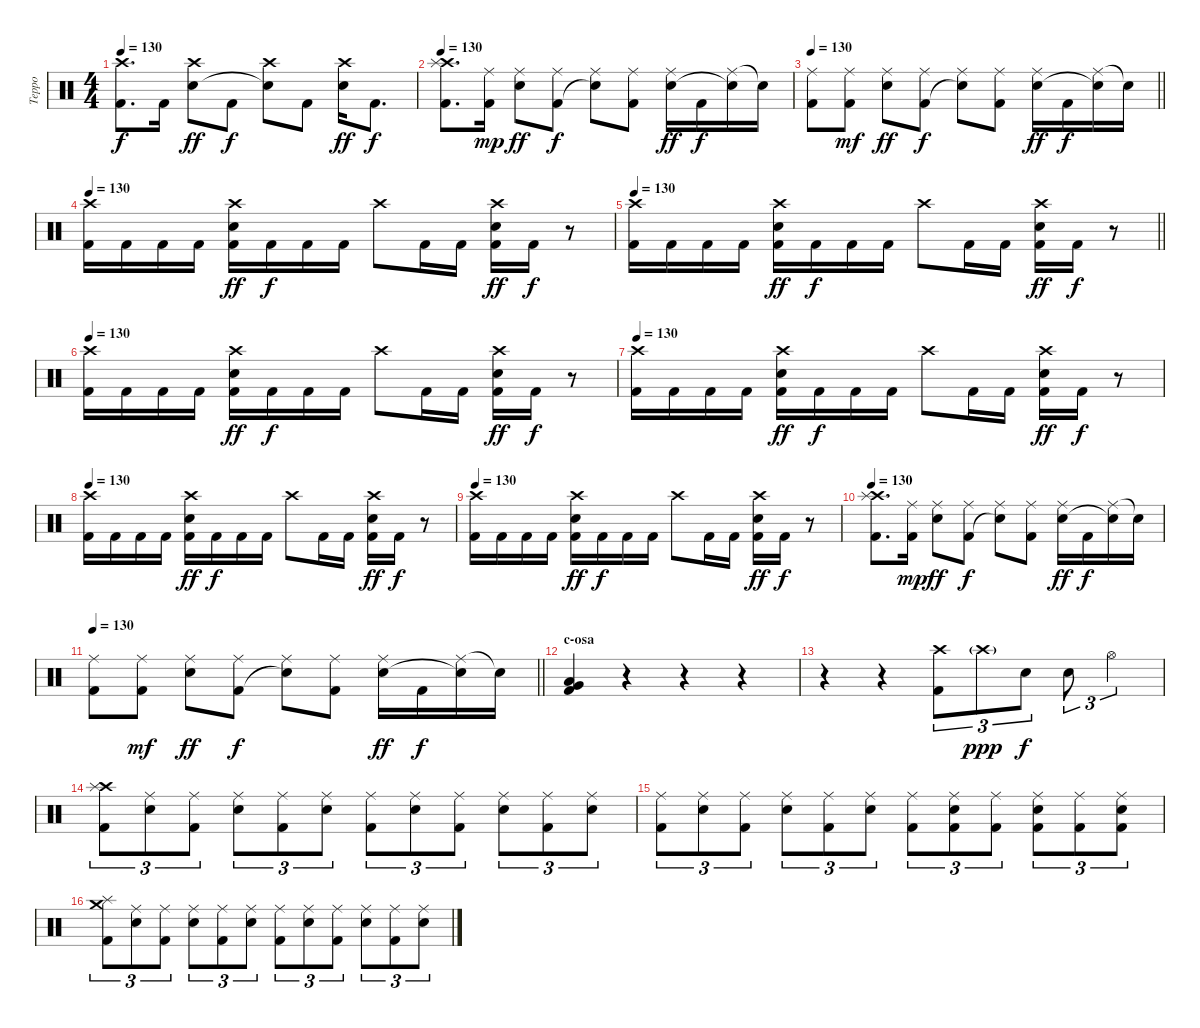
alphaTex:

\track ("Teppo" "Teppo") {instrument percussion}
\staff {score}
\articulation defaults
\ts (4 4)
\tempo 130
\clef neutral
\ks c
("Crash high (hit)" "Kick (hit) 2").8{d dy f} "Kick (hit) 2".16 ("Crash high (hit)" "Electric Snare (hit)").8{dy ff} "Kick (hit) 2".8{dy f} ("Crash high (hit)" "Snare (hit)"{t}).8 "Kick (hit) 2".8 ("Crash high (hit)" "Electric Snare (hit)").16{dy ff} "Kick (hit) 2".8{d dy f} |
\tempo 130
("Crash high (hit)" "Splash (hit)" "Kick (hit) 2").8{d} ("Ride (middle)" "Kick (hit) 2").16{dy mp} ("Ride (middle)" "Electric Snare (hit)").8{dy ff} ("Ride (middle)" "Kick (hit) 2").8{dy f} ("Ride (middle)" "Snare (hit)"{t}).8 ("Ride (middle)" "Kick (hit) 2").8 ("Ride (middle)" "Electric Snare (hit)").16{dy ff} "Kick (hit) 2".16{dy f} ("Ride (middle)" "Snare (hit)"{t}).16 "Snare (hit)"{t}.16 |
\tempo 130
\barLineRight lightlight
("Ride (middle)" "Kick (hit) 2").8 ("Ride (middle)" "Kick (hit) 2").8{dy mf} ("Ride (middle)" "Electric Snare (hit)").8{dy ff} ("Ride (middle)" "Kick (hit) 2").8{dy f} ("Ride (middle)" "Snare (hit)"{t}).8 ("Ride (middle)" "Kick (hit) 2").8 ("Ride (middle)" "Electric Snare (hit)").16{dy ff} "Kick (hit) 2".16{dy f} ("Ride (middle)" "Snare (hit)"{t}).16 "Snare (hit)"{t}.16 |
\tempo 130
("Crash high (hit)" "Kick (hit) 2").16 "Kick (hit) 2".16 "Kick (hit) 2".16 "Kick (hit) 2".16 ("Crash high (hit)" "Electric Snare (hit)" "Kick (hit) 2").16{dy ff} "Kick (hit) 2".16{dy f} "Kick (hit) 2".16 "Kick (hit) 2".16 "Crash high (hit)".8 "Kick (hit) 2".16 "Kick (hit) 2".16 ("Crash high (hit)" "Electric Snare (hit)" "Kick (hit) 2").16{dy ff} "Kick (hit) 2".16{dy f} r.8 |
\tempo 130
\barLineRight lightlight
("Crash high (hit)" "Kick (hit) 2").16 "Kick (hit) 2".16 "Kick (hit) 2".16 "Kick (hit) 2".16 ("Crash high (hit)" "Electric Snare (hit)" "Kick (hit) 2").16{dy ff} "Kick (hit) 2".16{dy f} "Kick (hit) 2".16 "Kick (hit) 2".16 "Crash high (hit)".8 "Kick (hit) 2".16 "Kick (hit) 2".16 ("Crash high (hit)" "Electric Snare (hit)" "Kick (hit) 2").16{dy ff} "Kick (hit) 2".16{dy f} r.8 |
\section ("" "")
\tempo 130
("Crash high (hit)" "Kick (hit) 2").16 "Kick (hit) 2".16 "Kick (hit) 2".16 "Kick (hit) 2".16 ("Crash high (hit)" "Electric Snare (hit)" "Kick (hit) 2").16{dy ff} "Kick (hit) 2".16{dy f} "Kick (hit) 2".16 "Kick (hit) 2".16 "Crash high (hit)".8 "Kick (hit) 2".16 "Kick (hit) 2".16 ("Crash high (hit)" "Electric Snare (hit)" "Kick (hit) 2").16{dy ff} "Kick (hit) 2".16{dy f} r.8 |
\tempo 130
("Crash high (hit)" "Kick (hit) 2").16 "Kick (hit) 2".16 "Kick (hit) 2".16 "Kick (hit) 2".16 ("Crash high (hit)" "Electric Snare (hit)" "Kick (hit) 2").16{dy ff} "Kick (hit) 2".16{dy f} "Kick (hit) 2".16 "Kick (hit) 2".16 "Crash high (hit)".8 "Kick (hit) 2".16 "Kick (hit) 2".16 ("Crash high (hit)" "Electric Snare (hit)" "Kick (hit) 2").16{dy ff} "Kick (hit) 2".16{dy f} r.8 |
\tempo 130
("Crash high (hit)" "Kick (hit) 2").16 "Kick (hit) 2".16 "Kick (hit) 2".16 "Kick (hit) 2".16 ("Crash high (hit)" "Electric Snare (hit)" "Kick (hit) 2").16{dy ff} "Kick (hit) 2".16{dy f} "Kick (hit) 2".16 "Kick (hit) 2".16 "Crash high (hit)".8 "Kick (hit) 2".16 "Kick (hit) 2".16 ("Crash high (hit)" "Electric Snare (hit)" "Kick (hit) 2").16{dy ff} "Kick (hit) 2".16{dy f} r.8 |
\tempo 130
("Crash high (hit)" "Kick (hit) 2").16 "Kick (hit) 2".16 "Kick (hit) 2".16 "Kick (hit) 2".16 ("Crash high (hit)" "Electric Snare (hit)" "Kick (hit) 2").16{dy ff} "Kick (hit) 2".16{dy f} "Kick (hit) 2".16 "Kick (hit) 2".16 "Crash high (hit)".8 "Kick (hit) 2".16 "Kick (hit) 2".16 ("Crash high (hit)" "Electric Snare (hit)" "Kick (hit) 2").16{dy ff} "Kick (hit) 2".16{dy f} r.8 |
\tempo 130
("Crash high (hit)" "Splash (hit)" "Kick (hit) 2").8{d} ("Ride (middle)" "Kick (hit) 2").16{dy mp} ("Ride (middle)" "Electric Snare (hit)").8{dy ff} ("Ride (middle)" "Kick (hit) 2").8{dy f} ("Ride (middle)" "Snare (hit)"{t}).8 ("Ride (middle)" "Kick (hit) 2").8 ("Ride (middle)" "Electric Snare (hit)").16{dy ff} "Kick (hit) 2".16{dy f} ("Ride (middle)" "Snare (hit)"{t}).16 "Snare (hit)"{t}.16 |
\tempo 130
\barLineRight lightlight
("Ride (middle)" "Kick (hit) 2").8 ("Ride (middle)" "Kick (hit) 2").8{dy mf} ("Ride (middle)" "Electric Snare (hit)").8{dy ff} ("Ride (middle)" "Kick (hit) 2").8{dy f} ("Ride (middle)" "Snare (hit)"{t}).8 ("Ride (middle)" "Kick (hit) 2").8 ("Ride (middle)" "Electric Snare (hit)").16{dy ff} "Kick (hit) 2".16{dy f} ("Ride (middle)" "Snare (hit)"{t}).16 "Snare (hit)"{t}.16 |
\section ("" "c-osa")
("Low Floor Tom (hit)" "Very Low Tom (hit)" "Kick (hit) 2").4 r.4 r.4 r.4 |
r.4 r.4 ("Crash high (hit)" "Kick (hit) 2").8{tu (3 2)} "Crash high (hit)"{g}.8{tu (3 2) dy ppp} "Electric Snare (hit)".8{tu (3 2) dy f} "Electric Snare (hit)".8{tu (3 2)} "Hi-Hat (open)".4{tu (3 2)} |
("Crash high (hit)" "Splash (hit)" "Kick (hit) 2").8{tu (3 2)} ("Ride (middle)" "Electric Snare (hit)").8{tu (3 2)} ("Ride (middle)" "Kick (hit) 2").8{tu (3 2)} ("Ride (middle)" "Electric Snare (hit)").8{tu (3 2)} ("Ride (middle)" "Kick (hit) 2").8{tu (3 2)} ("Ride (middle)" "Electric Snare (hit)").8{tu (3 2)} ("Ride (middle)" "Kick (hit) 2").8{tu (3 2)} ("Ride (middle)" "Electric Snare (hit)").8{tu (3 2)} ("Ride (middle)" "Kick (hit) 2").8{tu (3 2)} ("Ride (middle)" "Electric Snare (hit)").8{tu (3 2)} ("Ride (middle)" "Kick (hit) 2").8{tu (3 2)} ("Ride (middle)" "Electric Snare (hit)").8{tu (3 2)} |
("Ride (middle)" "Kick (hit) 2").8{tu (3 2)} ("Ride (middle)" "Electric Snare (hit)").8{tu (3 2)} ("Ride (middle)" "Kick (hit) 2").8{tu (3 2)} ("Ride (middle)" "Electric Snare (hit)").8{tu (3 2)} ("Ride (middle)" "Kick (hit) 2").8{tu (3 2)} ("Ride (middle)" "Electric Snare (hit)").8{tu (3 2)} ("Ride (middle)" "Kick (hit) 2").8{tu (3 2)} ("Ride (middle)" "Electric Snare (hit)" "Kick (hit) 2").8{tu (3 2)} ("Ride (middle)" "Kick (hit) 2").8{tu (3 2)} ("Ride (middle)" "Electric Snare (hit)" "Kick (hit) 2").8{tu (3 2)} ("Ride (middle)" "Kick (hit) 2").8{tu (3 2)} ("Ride (middle)" "Electric Snare (hit)" "Kick (hit) 2").8{tu (3 2)} |
("Crash medium (hit)" "Splash (hit)" "Kick (hit) 2").8{tu (3 2)} ("Ride (middle)" "Electric Snare (hit)").8{tu (3 2)} ("Ride (middle)" "Kick (hit) 2").8{tu (3 2)} ("Ride (middle)" "Electric Snare (hit)").8{tu (3 2)} ("Ride (middle)" "Kick (hit) 2").8{tu (3 2)} ("Ride (middle)" "Electric Snare (hit)").8{tu (3 2)} ("Ride (middle)" "Kick (hit) 2").8{tu (3 2)} ("Ride (middle)" "Electric Snare (hit)").8{tu (3 2)} ("Ride (middle)" "Kick (hit) 2").8{tu (3 2)} ("Ride (middle)" "Electric Snare (hit)").8{tu (3 2)} ("Ride (middle)" "Kick (hit) 2").8{tu (3 2)} ("Ride (middle)" "Electric Snare (hit)").8{tu (3 2)}
